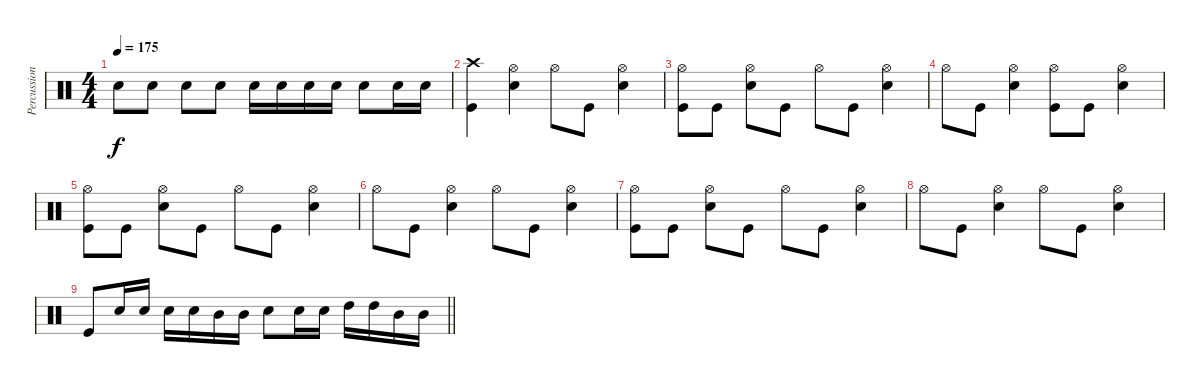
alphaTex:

\track ("Percussion" "Percussion") {instrument percussion}
\staff {score}
\articulation defaults
\ts (4 4)
\tempo 175
\clef neutral
\ks c "Snare (hit) 2".8{dy f} "Snare (hit) 2".8 "Snare (hit) 2".8 "Snare (hit) 2".8 "Snare (hit) 2".16 "Snare (hit) 2".16 "Snare (hit) 2".16 "Snare (hit) 2".16 "Snare (hit) 2".8 "Snare (hit) 2".16 "Snare (hit) 2".16
|
("Crash high (hit)" "Kick (hit)").4 ("Snare (hit) 2" "Hi-Hat (open)").4 "Hi-Hat (open)".8 "Kick (hit)".8 ("Snare (hit) 2" "Hi-Hat (open)").4 |
("Hi-Hat (open)" "Kick (hit)").8 "Kick (hit)".8 ("Snare (hit) 2" "Hi-Hat (open)").8 "Kick (hit)".8 "Hi-Hat (open)".8 "Kick (hit)".8 ("Snare (hit) 2" "Hi-Hat (open)").4 |
"Hi-Hat (open)".8 "Kick (hit)".8 ("Snare (hit) 2" "Hi-Hat (open)").4 ("Hi-Hat (open)" "Kick (hit)").8 "Kick (hit)".8 ("Snare (hit) 2" "Hi-Hat (open)").4 |
("Hi-Hat (open)" "Kick (hit)").8 "Kick (hit)".8 ("Snare (hit) 2" "Hi-Hat (open)").8 "Kick (hit)".8 "Hi-Hat (open)".8 "Kick (hit)".8 ("Snare (hit) 2" "Hi-Hat (open)").4 |
"Hi-Hat (open)".8 "Kick (hit)".8 ("Snare (hit) 2" "Hi-Hat (open)").4 "Hi-Hat (open)".8 "Kick (hit)".8 ("Snare (hit) 2" "Hi-Hat (open)").4 |
("Hi-Hat (open)" "Kick (hit)").8 "Kick (hit)".8 ("Snare (hit) 2" "Hi-Hat (open)").8 "Kick (hit)".8 "Hi-Hat (open)".8 "Kick (hit)".8 ("Snare (hit) 2" "Hi-Hat (open)").4 |
"Hi-Hat (open)".8 "Kick (hit)".8 ("Snare (hit) 2" "Hi-Hat (open)").4 "Hi-Hat (open)".8 "Kick (hit)".8 ("Snare (hit) 2" "Hi-Hat (open)").4 |
\barLineRight lightlight "Kick (hit)".8 "Snare (hit) 2".16 "Snare (hit) 2".16 "Snare (hit) 2".16 "Snare (hit) 2".16 "Mid Tom (hit)".16 "Mid Tom (hit)".16 "Snare (hit) 2".8 "Snare (hit) 2".16 "Snare (hit) 2".16 "High Tom (hit)".16 "High Tom (hit)".16 "Mid Tom (hit)".16 "Mid Tom (hit)".16
